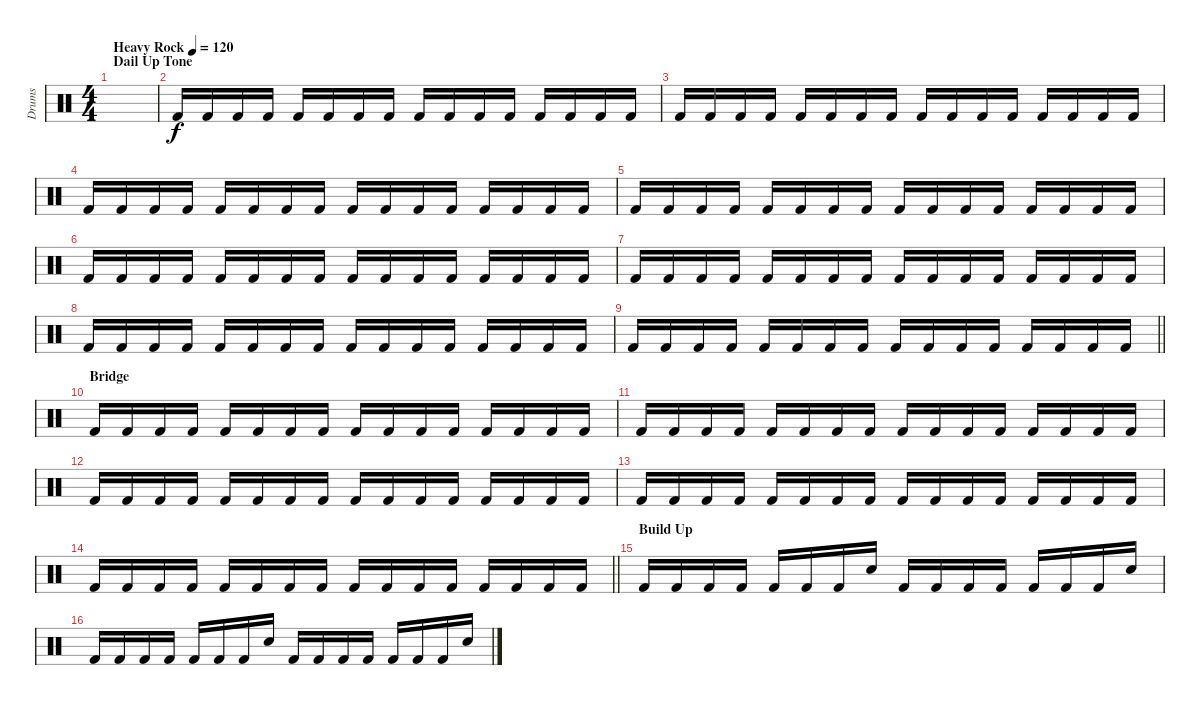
\track ("Drums" "Drums") {instrument percussion}
\staff {score}
\articulation defaults
\ts (4 4)
\section ("" "Dail Up Tone")
\tempo (120 "Heavy Rock")
\clef neutral
\ks c
|
"Kick (hit) 2".16 "Kick (hit) 2".16 "Kick (hit) 2".16 "Kick (hit) 2".16 "Kick (hit) 2".16 "Kick (hit) 2".16 "Kick (hit) 2".16 "Kick (hit) 2".16 "Kick (hit) 2".16 "Kick (hit) 2".16 "Kick (hit) 2".16 "Kick (hit) 2".16 "Kick (hit) 2".16 "Kick (hit) 2".16 "Kick (hit) 2".16 "Kick (hit) 2".16 |
"Kick (hit) 2".16 "Kick (hit) 2".16 "Kick (hit) 2".16 "Kick (hit) 2".16 "Kick (hit) 2".16 "Kick (hit) 2".16 "Kick (hit) 2".16 "Kick (hit) 2".16 "Kick (hit) 2".16 "Kick (hit) 2".16 "Kick (hit) 2".16 "Kick (hit) 2".16 "Kick (hit) 2".16 "Kick (hit) 2".16 "Kick (hit) 2".16 "Kick (hit) 2".16 |
"Kick (hit) 2".16 "Kick (hit) 2".16 "Kick (hit) 2".16 "Kick (hit) 2".16 "Kick (hit) 2".16 "Kick (hit) 2".16 "Kick (hit) 2".16 "Kick (hit) 2".16 "Kick (hit) 2".16 "Kick (hit) 2".16 "Kick (hit) 2".16 "Kick (hit) 2".16 "Kick (hit) 2".16 "Kick (hit) 2".16 "Kick (hit) 2".16 "Kick (hit) 2".16 |
"Kick (hit) 2".16 "Kick (hit) 2".16 "Kick (hit) 2".16 "Kick (hit) 2".16 "Kick (hit) 2".16 "Kick (hit) 2".16 "Kick (hit) 2".16 "Kick (hit) 2".16 "Kick (hit) 2".16 "Kick (hit) 2".16 "Kick (hit) 2".16 "Kick (hit) 2".16 "Kick (hit) 2".16 "Kick (hit) 2".16 "Kick (hit) 2".16 "Kick (hit) 2".16 |
"Kick (hit) 2".16 "Kick (hit) 2".16 "Kick (hit) 2".16 "Kick (hit) 2".16 "Kick (hit) 2".16 "Kick (hit) 2".16 "Kick (hit) 2".16 "Kick (hit) 2".16 "Kick (hit) 2".16 "Kick (hit) 2".16 "Kick (hit) 2".16 "Kick (hit) 2".16 "Kick (hit) 2".16 "Kick (hit) 2".16 "Kick (hit) 2".16 "Kick (hit) 2".16 |
"Kick (hit) 2".16 "Kick (hit) 2".16 "Kick (hit) 2".16 "Kick (hit) 2".16 "Kick (hit) 2".16 "Kick (hit) 2".16 "Kick (hit) 2".16 "Kick (hit) 2".16 "Kick (hit) 2".16 "Kick (hit) 2".16 "Kick (hit) 2".16 "Kick (hit) 2".16 "Kick (hit) 2".16 "Kick (hit) 2".16 "Kick (hit) 2".16 "Kick (hit) 2".16 |
"Kick (hit) 2".16 "Kick (hit) 2".16 "Kick (hit) 2".16 "Kick (hit) 2".16 "Kick (hit) 2".16 "Kick (hit) 2".16 "Kick (hit) 2".16 "Kick (hit) 2".16 "Kick (hit) 2".16 "Kick (hit) 2".16 "Kick (hit) 2".16 "Kick (hit) 2".16 "Kick (hit) 2".16 "Kick (hit) 2".16 "Kick (hit) 2".16 "Kick (hit) 2".16 |
\barLineRight lightlight "Kick (hit) 2".16 "Kick (hit) 2".16 "Kick (hit) 2".16 "Kick (hit) 2".16 "Kick (hit) 2".16 "Kick (hit) 2".16 "Kick (hit) 2".16 "Kick (hit) 2".16 "Kick (hit) 2".16 "Kick (hit) 2".16 "Kick (hit) 2".16 "Kick (hit) 2".16 "Kick (hit) 2".16 "Kick (hit) 2".16 "Kick (hit) 2".16 "Kick (hit) 2".16
|
\section ("" "Bridge")
"Kick (hit) 2".16 "Kick (hit) 2".16 "Kick (hit) 2".16 "Kick (hit) 2".16 "Kick (hit) 2".16 "Kick (hit) 2".16 "Kick (hit) 2".16 "Kick (hit) 2".16 "Kick (hit) 2".16 "Kick (hit) 2".16 "Kick (hit) 2".16 "Kick (hit) 2".16 "Kick (hit) 2".16 "Kick (hit) 2".16 "Kick (hit) 2".16 "Kick (hit) 2".16 |
"Kick (hit) 2".16 "Kick (hit) 2".16 "Kick (hit) 2".16 "Kick (hit) 2".16 "Kick (hit) 2".16 "Kick (hit) 2".16 "Kick (hit) 2".16 "Kick (hit) 2".16 "Kick (hit) 2".16 "Kick (hit) 2".16 "Kick (hit) 2".16 "Kick (hit) 2".16 "Kick (hit) 2".16 "Kick (hit) 2".16 "Kick (hit) 2".16 "Kick (hit) 2".16 |
"Kick (hit) 2".16 "Kick (hit) 2".16 "Kick (hit) 2".16 "Kick (hit) 2".16 "Kick (hit) 2".16 "Kick (hit) 2".16 "Kick (hit) 2".16 "Kick (hit) 2".16 "Kick (hit) 2".16 "Kick (hit) 2".16 "Kick (hit) 2".16 "Kick (hit) 2".16 "Kick (hit) 2".16 "Kick (hit) 2".16 "Kick (hit) 2".16 "Kick (hit) 2".16 |
"Kick (hit) 2".16 "Kick (hit) 2".16 "Kick (hit) 2".16 "Kick (hit) 2".16 "Kick (hit) 2".16 "Kick (hit) 2".16 "Kick (hit) 2".16 "Kick (hit) 2".16 "Kick (hit) 2".16 "Kick (hit) 2".16 "Kick (hit) 2".16 "Kick (hit) 2".16 "Kick (hit) 2".16 "Kick (hit) 2".16 "Kick (hit) 2".16 "Kick (hit) 2".16 |
\barLineRight lightlight "Kick (hit) 2".16 "Kick (hit) 2".16 "Kick (hit) 2".16 "Kick (hit) 2".16 "Kick (hit) 2".16 "Kick (hit) 2".16 "Kick (hit) 2".16 "Kick (hit) 2".16 "Kick (hit) 2".16 "Kick (hit) 2".16 "Kick (hit) 2".16 "Kick (hit) 2".16 "Kick (hit) 2".16 "Kick (hit) 2".16 "Kick (hit) 2".16 "Kick (hit) 2".16
|
\section ("" "Build Up")
"Kick (hit) 2".16 "Kick (hit) 2".16 "Kick (hit) 2".16 "Kick (hit) 2".16 "Kick (hit) 2".16 "Kick (hit) 2".16 "Kick (hit) 2".16 "Electric Snare (hit)".16 "Kick (hit) 2".16 "Kick (hit) 2".16 "Kick (hit) 2".16 "Kick (hit) 2".16 "Kick (hit) 2".16 "Kick (hit) 2".16 "Kick (hit) 2".16 "Electric Snare (hit)".16 |
"Kick (hit) 2".16 "Kick (hit) 2".16 "Kick (hit) 2".16 "Kick (hit) 2".16 "Kick (hit) 2".16 "Kick (hit) 2".16 "Kick (hit) 2".16 "Electric Snare (hit)".16 "Kick (hit) 2".16 "Kick (hit) 2".16 "Kick (hit) 2".16 "Kick (hit) 2".16 "Kick (hit) 2".16 "Kick (hit) 2".16 "Kick (hit) 2".16 "Electric Snare (hit)".16
